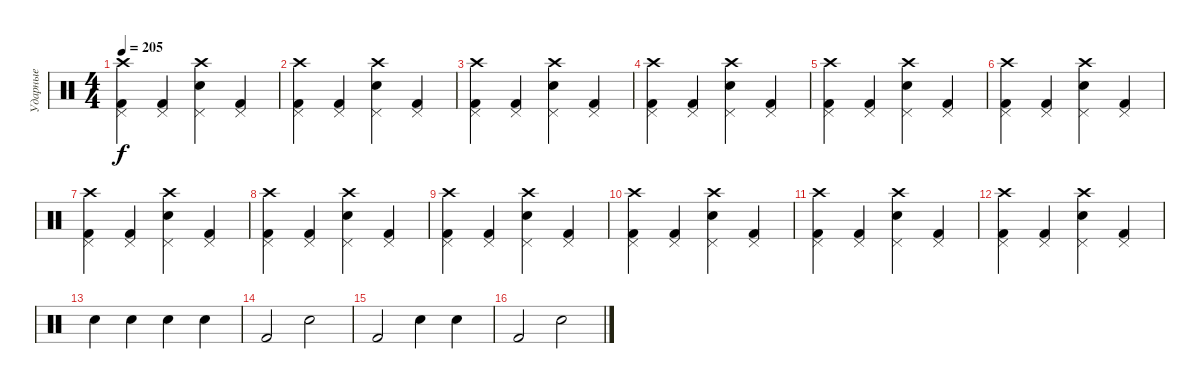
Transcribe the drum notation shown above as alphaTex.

\track ("Ударные" "Ударные") {instrument percussion}
\staff {score}
\articulation defaults
\ts (4 4)
\tempo 205
\clef neutral
\ks c
("Crash high (hit)" "Pedal Hi-Hat (hit)" "Kick (hit) 2").4{dy f} ("Pedal Hi-Hat (hit)" "Kick (hit) 2").4 ("Crash high (hit)" "Pedal Hi-Hat (hit)" "Snare (hit) 2").4 ("Pedal Hi-Hat (hit)" "Kick (hit) 2").4 |
("Crash high (hit)" "Pedal Hi-Hat (hit)" "Kick (hit) 2").4 ("Pedal Hi-Hat (hit)" "Kick (hit) 2").4 ("Crash high (hit)" "Pedal Hi-Hat (hit)" "Snare (hit) 2").4 ("Pedal Hi-Hat (hit)" "Kick (hit) 2").4 |
("Crash high (hit)" "Pedal Hi-Hat (hit)" "Kick (hit) 2").4 ("Pedal Hi-Hat (hit)" "Kick (hit) 2").4 ("Crash high (hit)" "Pedal Hi-Hat (hit)" "Snare (hit) 2").4 ("Pedal Hi-Hat (hit)" "Kick (hit) 2").4 |
("Crash high (hit)" "Pedal Hi-Hat (hit)" "Kick (hit) 2").4 ("Pedal Hi-Hat (hit)" "Kick (hit) 2").4 ("Crash high (hit)" "Pedal Hi-Hat (hit)" "Snare (hit) 2").4 ("Pedal Hi-Hat (hit)" "Kick (hit) 2").4 |
("Crash high (hit)" "Pedal Hi-Hat (hit)" "Kick (hit) 2").4 ("Pedal Hi-Hat (hit)" "Kick (hit) 2").4 ("Crash high (hit)" "Pedal Hi-Hat (hit)" "Snare (hit) 2").4 ("Pedal Hi-Hat (hit)" "Kick (hit) 2").4 |
("Crash high (hit)" "Pedal Hi-Hat (hit)" "Kick (hit) 2").4 ("Pedal Hi-Hat (hit)" "Kick (hit) 2").4 ("Crash high (hit)" "Pedal Hi-Hat (hit)" "Snare (hit) 2").4 ("Pedal Hi-Hat (hit)" "Kick (hit) 2").4 |
("Crash high (hit)" "Pedal Hi-Hat (hit)" "Kick (hit) 2").4 ("Pedal Hi-Hat (hit)" "Kick (hit) 2").4 ("Crash high (hit)" "Pedal Hi-Hat (hit)" "Snare (hit) 2").4 ("Pedal Hi-Hat (hit)" "Kick (hit) 2").4 |
("Crash high (hit)" "Pedal Hi-Hat (hit)" "Kick (hit) 2").4 ("Pedal Hi-Hat (hit)" "Kick (hit) 2").4 ("Crash high (hit)" "Pedal Hi-Hat (hit)" "Snare (hit) 2").4 ("Pedal Hi-Hat (hit)" "Kick (hit) 2").4 |
("Crash high (hit)" "Pedal Hi-Hat (hit)" "Kick (hit) 2").4 ("Pedal Hi-Hat (hit)" "Kick (hit) 2").4 ("Crash high (hit)" "Pedal Hi-Hat (hit)" "Snare (hit) 2").4 ("Pedal Hi-Hat (hit)" "Kick (hit) 2").4 |
("Crash high (hit)" "Pedal Hi-Hat (hit)" "Kick (hit) 2").4 ("Pedal Hi-Hat (hit)" "Kick (hit) 2").4 ("Crash high (hit)" "Pedal Hi-Hat (hit)" "Snare (hit) 2").4 ("Pedal Hi-Hat (hit)" "Kick (hit) 2").4 |
("Crash high (hit)" "Pedal Hi-Hat (hit)" "Kick (hit) 2").4 ("Pedal Hi-Hat (hit)" "Kick (hit) 2").4 ("Crash high (hit)" "Pedal Hi-Hat (hit)" "Snare (hit) 2").4 ("Pedal Hi-Hat (hit)" "Kick (hit) 2").4 |
("Crash high (hit)" "Pedal Hi-Hat (hit)" "Kick (hit) 2").4 ("Pedal Hi-Hat (hit)" "Kick (hit) 2").4 ("Crash high (hit)" "Pedal Hi-Hat (hit)" "Snare (hit) 2").4 ("Pedal Hi-Hat (hit)" "Kick (hit) 2").4 |
"Snare (hit) 2".4 "Snare (hit) 2".4 "Snare (hit) 2".4 "Snare (hit) 2".4 |
"Kick (hit) 2".2 "Snare (hit) 2".2 |
"Kick (hit) 2".2 "Snare (hit) 2".4 "Snare (hit) 2".4 |
"Kick (hit) 2".2 "Snare (hit) 2".2
